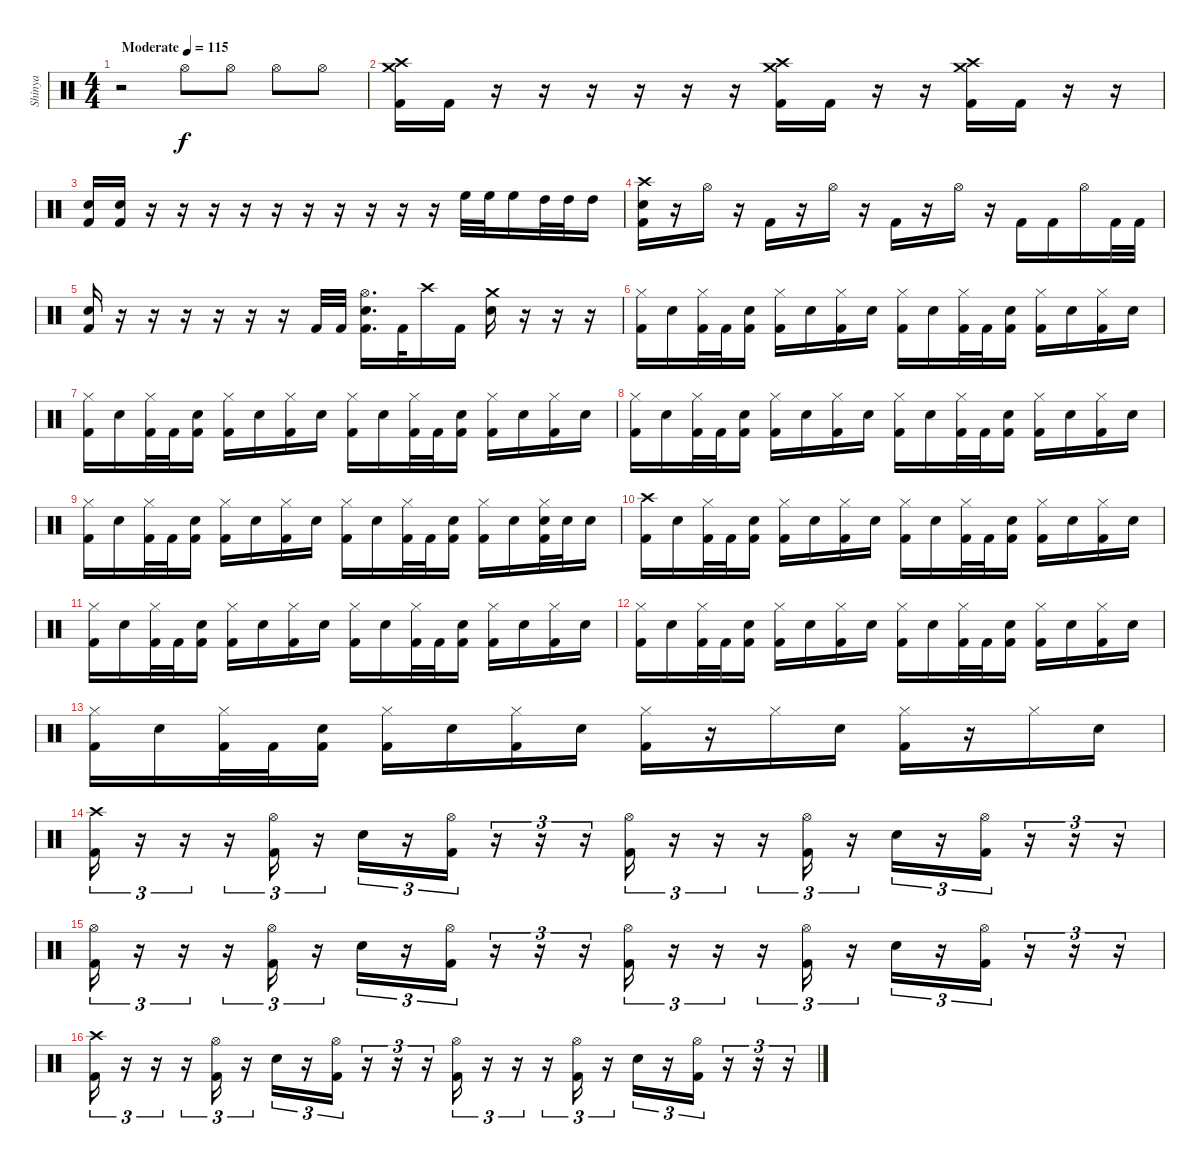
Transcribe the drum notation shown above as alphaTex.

\track ("Shinya" "Shinya") {instrument percussion}
\staff {score}
\articulation defaults
\ts (4 4)
\tempo (115 "Moderate")
\clef neutral
\ks c
r.2{dy f} "Hi-Hat (open)".8 "Hi-Hat (open)".8 "Hi-Hat (open)".8 "Hi-Hat (open)".8 |
("Crash high (hit)" "Crash medium (hit)" "Kick (hit) 2").16 "Kick (hit) 2".16 r.16 r.16 r.16 r.16 r.16 r.16 ("Crash high (hit)" "Crash medium (hit)" "Kick (hit) 2").16 "Kick (hit) 2".16 r.16 r.16 ("Crash high (hit)" "Crash medium (hit)" "Kick (hit) 2").16 "Kick (hit) 2".16 r.16 r.16 |
("Electric Snare (hit)" "Kick (hit) 2").16 ("Electric Snare (hit)" "Kick (hit) 2").16 r.16 r.16 r.16 r.16 r.16 r.16 r.16 r.16 r.16 r.16 "High Floor Tom (hit)".32 "High Floor Tom (hit)".32 "High Floor Tom (hit)".16 "High Tom (hit)".32 "High Tom (hit)".32 "High Tom (hit)".16 |
("Crash high (hit)" "Electric Snare (hit)" "Kick (hit) 2").16 r.16 "Hi-Hat (open)".16 r.16 "Kick (hit) 2".16 r.16 "Hi-Hat (open)".16 r.16 "Kick (hit) 2".16 r.16 "Hi-Hat (open)".16 r.16 "Kick (hit) 2".16 "Kick (hit) 2".16 "Hi-Hat (open)".16 "Kick (hit) 2".32 "Kick (hit) 2".32 |
("Electric Snare (hit)" "Kick (hit) 2").16 r.16 r.16 r.16 r.16 r.16 r.16 "Kick (hit) 2".32 "Kick (hit) 2".32 ("Hi-Hat (open)" "Electric Snare (hit)" "Kick (hit) 2").16{d} "Kick (hit) 2".32 "Crash high (hit)".16 "Kick (hit) 2".16 ("Crash medium (hit)" "Electric Snare (hit)").16 r.16 r.16 r.16 |
("Hi-Hat (closed)" "Kick (hit) 2").16 "Electric Snare (hit)".16 ("Hi-Hat (closed)" "Kick (hit) 2").32 "Kick (hit) 2".32 ("Electric Snare (hit)" "Kick (hit) 2").16 ("Hi-Hat (closed)" "Kick (hit) 2").16 "Electric Snare (hit)".16 ("Hi-Hat (closed)" "Kick (hit) 2").16 "Electric Snare (hit)".16 ("Hi-Hat (closed)" "Kick (hit) 2").16 "Electric Snare (hit)".16 ("Hi-Hat (closed)" "Kick (hit) 2").32 "Kick (hit) 2".32 ("Electric Snare (hit)" "Kick (hit) 2").16 ("Hi-Hat (closed)" "Kick (hit) 2").16 "Electric Snare (hit)".16 ("Hi-Hat (closed)" "Kick (hit) 2").16 "Electric Snare (hit)".16 |
("Hi-Hat (closed)" "Kick (hit) 2").16 "Electric Snare (hit)".16 ("Hi-Hat (closed)" "Kick (hit) 2").32 "Kick (hit) 2".32 ("Electric Snare (hit)" "Kick (hit) 2").16 ("Hi-Hat (closed)" "Kick (hit) 2").16 "Electric Snare (hit)".16 ("Hi-Hat (closed)" "Kick (hit) 2").16 "Electric Snare (hit)".16 ("Hi-Hat (closed)" "Kick (hit) 2").16 "Electric Snare (hit)".16 ("Hi-Hat (closed)" "Kick (hit) 2").32 "Kick (hit) 2".32 ("Electric Snare (hit)" "Kick (hit) 2").16 ("Hi-Hat (closed)" "Kick (hit) 2").16 "Electric Snare (hit)".16 ("Hi-Hat (closed)" "Kick (hit) 2").16 "Electric Snare (hit)".16 |
("Hi-Hat (closed)" "Kick (hit) 2").16 "Electric Snare (hit)".16 ("Hi-Hat (closed)" "Kick (hit) 2").32 "Kick (hit) 2".32 ("Electric Snare (hit)" "Kick (hit) 2").16 ("Hi-Hat (closed)" "Kick (hit) 2").16 "Electric Snare (hit)".16 ("Hi-Hat (closed)" "Kick (hit) 2").16 "Electric Snare (hit)".16 ("Hi-Hat (closed)" "Kick (hit) 2").16 "Electric Snare (hit)".16 ("Hi-Hat (closed)" "Kick (hit) 2").32 "Kick (hit) 2".32 ("Electric Snare (hit)" "Kick (hit) 2").16 ("Hi-Hat (closed)" "Kick (hit) 2").16 "Electric Snare (hit)".16 ("Hi-Hat (closed)" "Kick (hit) 2").16 "Electric Snare (hit)".16 |
("Hi-Hat (closed)" "Kick (hit) 2").16 "Electric Snare (hit)".16 ("Hi-Hat (closed)" "Kick (hit) 2").32 "Kick (hit) 2".32 ("Electric Snare (hit)" "Kick (hit) 2").16 ("Hi-Hat (closed)" "Kick (hit) 2").16 "Electric Snare (hit)".16 ("Hi-Hat (closed)" "Kick (hit) 2").16 "Electric Snare (hit)".16 ("Hi-Hat (closed)" "Kick (hit) 2").16 "Electric Snare (hit)".16 ("Hi-Hat (closed)" "Kick (hit) 2").32 "Kick (hit) 2".32 ("Electric Snare (hit)" "Kick (hit) 2").16 ("Hi-Hat (closed)" "Kick (hit) 2").16 "Electric Snare (hit)".16 ("Hi-Hat (closed)" "Electric Snare (hit)" "Kick (hit) 2").32 "Electric Snare (hit)".32 "Electric Snare (hit)".16 |
("Crash high (hit)" "Kick (hit) 2").16 "Electric Snare (hit)".16 ("Hi-Hat (closed)" "Kick (hit) 2").32 "Kick (hit) 2".32 ("Electric Snare (hit)" "Kick (hit) 2").16 ("Hi-Hat (closed)" "Kick (hit) 2").16 "Electric Snare (hit)".16 ("Hi-Hat (closed)" "Kick (hit) 2").16 "Electric Snare (hit)".16 ("Hi-Hat (closed)" "Kick (hit) 2").16 "Electric Snare (hit)".16 ("Hi-Hat (closed)" "Kick (hit) 2").32 "Kick (hit) 2".32 ("Electric Snare (hit)" "Kick (hit) 2").16 ("Hi-Hat (closed)" "Kick (hit) 2").16 "Electric Snare (hit)".16 ("Hi-Hat (closed)" "Kick (hit) 2").16 "Electric Snare (hit)".16 |
("Hi-Hat (closed)" "Kick (hit) 2").16 "Electric Snare (hit)".16 ("Hi-Hat (closed)" "Kick (hit) 2").32 "Kick (hit) 2".32 ("Electric Snare (hit)" "Kick (hit) 2").16 ("Hi-Hat (closed)" "Kick (hit) 2").16 "Electric Snare (hit)".16 ("Hi-Hat (closed)" "Kick (hit) 2").16 "Electric Snare (hit)".16 ("Hi-Hat (closed)" "Kick (hit) 2").16 "Electric Snare (hit)".16 ("Hi-Hat (closed)" "Kick (hit) 2").32 "Kick (hit) 2".32 ("Electric Snare (hit)" "Kick (hit) 2").16 ("Hi-Hat (closed)" "Kick (hit) 2").16 "Electric Snare (hit)".16 ("Hi-Hat (closed)" "Kick (hit) 2").16 "Electric Snare (hit)".16 |
("Hi-Hat (closed)" "Kick (hit) 2").16 "Electric Snare (hit)".16 ("Hi-Hat (closed)" "Kick (hit) 2").32 "Kick (hit) 2".32 ("Electric Snare (hit)" "Kick (hit) 2").16 ("Hi-Hat (closed)" "Kick (hit) 2").16 "Electric Snare (hit)".16 ("Hi-Hat (closed)" "Kick (hit) 2").16 "Electric Snare (hit)".16 ("Hi-Hat (closed)" "Kick (hit) 2").16 "Electric Snare (hit)".16 ("Hi-Hat (closed)" "Kick (hit) 2").32 "Kick (hit) 2".32 ("Electric Snare (hit)" "Kick (hit) 2").16 ("Hi-Hat (closed)" "Kick (hit) 2").16 "Electric Snare (hit)".16 ("Hi-Hat (closed)" "Kick (hit) 2").16 "Electric Snare (hit)".16 |
("Hi-Hat (closed)" "Kick (hit) 2").16 "Electric Snare (hit)".16 ("Hi-Hat (closed)" "Kick (hit) 2").32 "Kick (hit) 2".32 ("Electric Snare (hit)" "Kick (hit) 2").16 ("Hi-Hat (closed)" "Kick (hit) 2").16 "Electric Snare (hit)".16 ("Hi-Hat (closed)" "Kick (hit) 2").16 "Electric Snare (hit)".16 ("Hi-Hat (closed)" "Kick (hit) 2").16 r.16 "Hi-Hat (closed)".16 "Electric Snare (hit)".16 ("Hi-Hat (closed)" "Kick (hit) 2").16 r.16 "Hi-Hat (closed)".16 "Electric Snare (hit)".16 |
("Crash high (hit)" "Kick (hit) 2").16{tu (3 2)} r.16{tu (3 2)} r.16{tu (3 2)} r.16{tu (3 2)} ("Hi-Hat (open)" "Kick (hit) 2").16{tu (3 2)} r.16{tu (3 2)} "Electric Snare (hit)".16{tu (3 2)} r.16{tu (3 2)} ("Hi-Hat (open)" "Kick (hit) 2").16{tu (3 2)} r.16{tu (3 2)} r.16{tu (3 2)} r.16{tu (3 2)} ("Hi-Hat (open)" "Kick (hit) 2").16{tu (3 2)} r.16{tu (3 2)} r.16{tu (3 2)} r.16{tu (3 2)} ("Hi-Hat (open)" "Kick (hit) 2").16{tu (3 2)} r.16{tu (3 2)} "Electric Snare (hit)".16{tu (3 2)} r.16{tu (3 2)} ("Hi-Hat (open)" "Kick (hit) 2").16{tu (3 2)} r.16{tu (3 2)} r.16{tu (3 2)} r.16{tu (3 2)} |
("Hi-Hat (open)" "Kick (hit) 2").16{tu (3 2)} r.16{tu (3 2)} r.16{tu (3 2)} r.16{tu (3 2)} ("Hi-Hat (open)" "Kick (hit) 2").16{tu (3 2)} r.16{tu (3 2)} "Electric Snare (hit)".16{tu (3 2)} r.16{tu (3 2)} ("Hi-Hat (open)" "Kick (hit) 2").16{tu (3 2)} r.16{tu (3 2)} r.16{tu (3 2)} r.16{tu (3 2)} ("Hi-Hat (open)" "Kick (hit) 2").16{tu (3 2)} r.16{tu (3 2)} r.16{tu (3 2)} r.16{tu (3 2)} ("Hi-Hat (open)" "Kick (hit) 2").16{tu (3 2)} r.16{tu (3 2)} "Electric Snare (hit)".16{tu (3 2)} r.16{tu (3 2)} ("Hi-Hat (open)" "Kick (hit) 2").16{tu (3 2)} r.16{tu (3 2)} r.16{tu (3 2)} r.16{tu (3 2)} |
("Crash high (hit)" "Kick (hit) 2").16{tu (3 2)} r.16{tu (3 2)} r.16{tu (3 2)} r.16{tu (3 2)} ("Hi-Hat (open)" "Kick (hit) 2").16{tu (3 2)} r.16{tu (3 2)} "Electric Snare (hit)".16{tu (3 2)} r.16{tu (3 2)} ("Hi-Hat (open)" "Kick (hit) 2").16{tu (3 2)} r.16{tu (3 2)} r.16{tu (3 2)} r.16{tu (3 2)} ("Hi-Hat (open)" "Kick (hit) 2").16{tu (3 2)} r.16{tu (3 2)} r.16{tu (3 2)} r.16{tu (3 2)} ("Hi-Hat (open)" "Kick (hit) 2").16{tu (3 2)} r.16{tu (3 2)} "Electric Snare (hit)".16{tu (3 2)} r.16{tu (3 2)} ("Hi-Hat (open)" "Kick (hit) 2").16{tu (3 2)} r.16{tu (3 2)} r.16{tu (3 2)} r.16{tu (3 2)}
